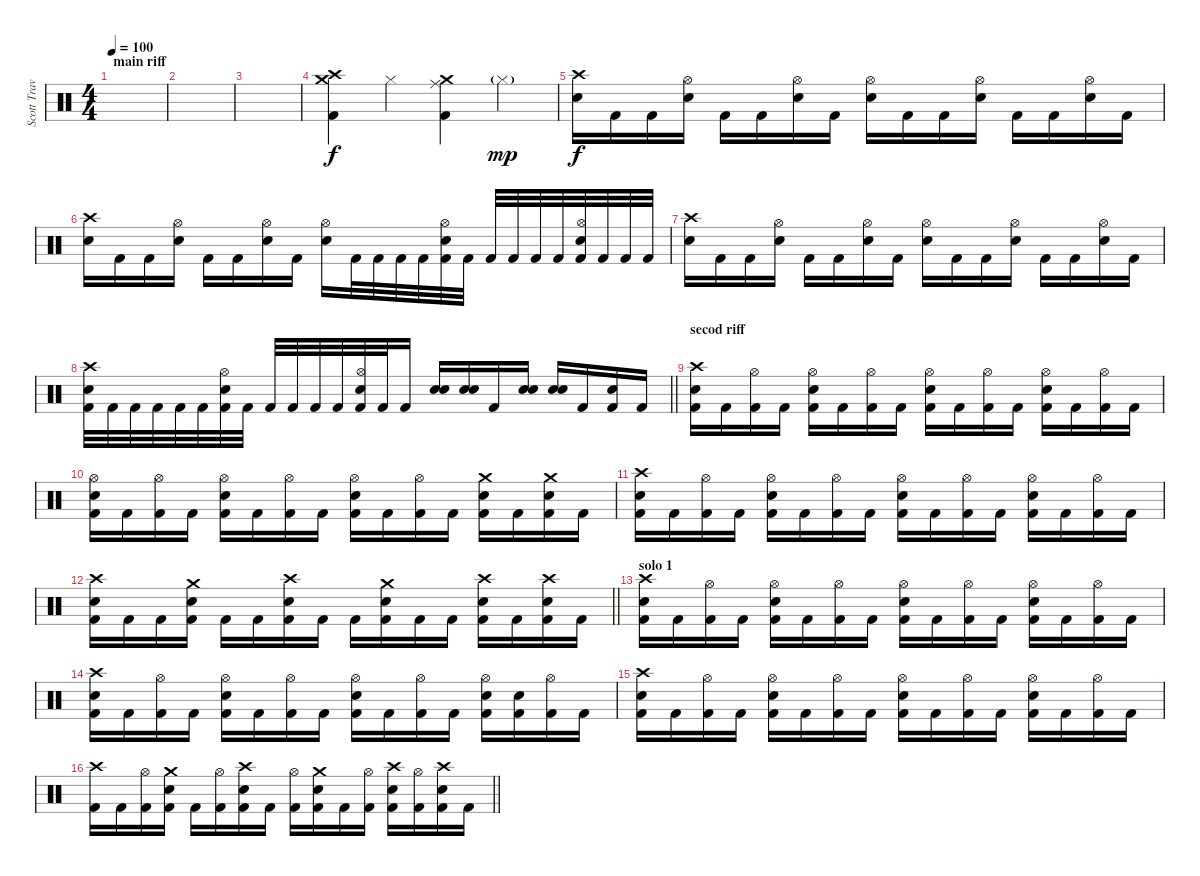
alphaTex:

\track ("Scott Travis" "Scott Trav") {instrument percussion}
\staff {score}
\articulation defaults
\ts (4 4)
\section ("" "main riff")
\tempo 100
\clef neutral
\ks c
|
|
|
("Crash high (hit)" "Crash medium (hit)" "Kick (hit) 2").4 "Hi-Hat (closed)".4 ("Ride (middle)" "Crash medium (hit)" "Kick (hit) 2").4 "Hi-Hat (closed)"{g}.4{dy mp} |
("Crash high (hit)" "Electric Snare (hit)").16{dy f} "Kick (hit) 2".16 "Kick (hit) 2".16 ("Hi-Hat (open)" "Snare (hit) 2").16 "Kick (hit) 2".16 "Kick (hit) 2".16 ("Hi-Hat (open)" "Snare (hit) 2").16 "Kick (hit) 2".16 ("Hi-Hat (open)" "Snare (hit) 2").16 "Kick (hit) 2".16 "Kick (hit) 2".16 ("Hi-Hat (open)" "Snare (hit) 2").16 "Kick (hit) 2".16 "Kick (hit) 2".16 ("Hi-Hat (open)" "Snare (hit) 2").16 "Kick (hit) 2".16 |
("Crash high (hit)" "Electric Snare (hit)").16 "Kick (hit) 2".16 "Kick (hit) 2".16 ("Hi-Hat (open)" "Snare (hit) 2").16 "Kick (hit) 2".16 "Kick (hit) 2".16 ("Hi-Hat (open)" "Snare (hit) 2").16 "Kick (hit) 2".16 ("Hi-Hat (open)" "Snare (hit) 2").16 "Kick (hit) 2".32 "Kick (hit) 2".32 "Kick (hit) 2".32 "Kick (hit) 2".32 ("Hi-Hat (open)" "Snare (hit) 2" "Kick (hit) 2").32 "Kick (hit) 2".32 "Kick (hit) 2".32 "Kick (hit) 2".32 "Kick (hit) 2".32 "Kick (hit) 2".32 ("Hi-Hat (open)" "Snare (hit) 2" "Kick (hit) 2").32 "Kick (hit) 2".32 "Kick (hit) 2".32 "Kick (hit) 2".32 |
("Crash high (hit)" "Electric Snare (hit)").16 "Kick (hit) 2".16 "Kick (hit) 2".16 ("Hi-Hat (open)" "Snare (hit) 2").16 "Kick (hit) 2".16 "Kick (hit) 2".16 ("Hi-Hat (open)" "Snare (hit) 2").16 "Kick (hit) 2".16 ("Hi-Hat (open)" "Snare (hit) 2").16 "Kick (hit) 2".16 "Kick (hit) 2".16 ("Hi-Hat (open)" "Snare (hit) 2").16 "Kick (hit) 2".16 "Kick (hit) 2".16 ("Hi-Hat (open)" "Snare (hit) 2").16 "Kick (hit) 2".16 |
\barLineRight lightlight
("Crash high (hit)" "Snare (hit) 2" "Kick (hit) 2").32 "Kick (hit) 2".32 "Kick (hit) 2".32 "Kick (hit) 2".32 "Kick (hit) 2".32 "Kick (hit) 2".32 ("Hi-Hat (open)" "Snare (hit) 2" "Kick (hit) 2").32 "Kick (hit) 2".32 "Kick (hit) 2".32 "Kick (hit) 2".32 "Kick (hit) 2".32 "Kick (hit) 2".32 ("Hi-Hat (open)" "Snare (hit) 2" "Kick (hit) 2").32 "Kick (hit) 2".32 "Kick (hit) 2".16 ("Electric Snare (hit)" "Snare (hit) 2").16 ("Electric Snare (hit)" "Snare (hit) 2").16 "Kick (hit) 2".16 ("Electric Snare (hit)" "Snare (hit) 2").16 ("Electric Snare (hit)" "Snare (hit) 2").16 "Kick (hit) 2".16 ("Snare (hit) 2" "Kick (hit) 2").16 "Kick (hit) 2".16 |
\section ("" "secod riff")
("Crash high (hit)" "Snare (hit) 2" "Kick (hit) 2").16 "Kick (hit) 2".16 ("Hi-Hat (open)" "Kick (hit) 2").16 "Kick (hit) 2".16 ("Hi-Hat (open)" "Snare (hit) 2" "Kick (hit) 2").16 "Kick (hit) 2".16 ("Hi-Hat (open)" "Kick (hit) 2").16 "Kick (hit) 2".16 ("Hi-Hat (open)" "Snare (hit) 2" "Kick (hit) 2").16 "Kick (hit) 2".16 ("Hi-Hat (open)" "Kick (hit) 2").16 "Kick (hit) 2".16 ("Hi-Hat (open)" "Snare (hit) 2" "Kick (hit) 2").16 "Kick (hit) 2".16 ("Hi-Hat (open)" "Kick (hit) 2").16 "Kick (hit) 2".16 |
("Hi-Hat (open)" "Snare (hit) 2" "Kick (hit) 2").16 "Kick (hit) 2".16 ("Hi-Hat (open)" "Kick (hit) 2").16 "Kick (hit) 2".16 ("Hi-Hat (open)" "Snare (hit) 2" "Kick (hit) 2").16 "Kick (hit) 2".16 ("Hi-Hat (open)" "Kick (hit) 2").16 "Kick (hit) 2".16 ("Hi-Hat (open)" "Snare (hit) 2" "Kick (hit) 2").16 "Kick (hit) 2".16 ("Hi-Hat (open)" "Kick (hit) 2").16 "Kick (hit) 2".16 ("Crash medium (hit)" "Snare (hit) 2" "Kick (hit) 2").16 "Kick (hit) 2".16 ("Crash medium (hit)" "Snare (hit) 2" "Kick (hit) 2").16 "Kick (hit) 2".16 |
("Crash high (hit)" "Snare (hit) 2" "Kick (hit) 2").16 "Kick (hit) 2".16 ("Hi-Hat (open)" "Kick (hit) 2").16 "Kick (hit) 2".16 ("Hi-Hat (open)" "Snare (hit) 2" "Kick (hit) 2").16 "Kick (hit) 2".16 ("Hi-Hat (open)" "Kick (hit) 2").16 "Kick (hit) 2".16 ("Hi-Hat (open)" "Snare (hit) 2" "Kick (hit) 2").16 "Kick (hit) 2".16 ("Hi-Hat (open)" "Kick (hit) 2").16 "Kick (hit) 2".16 ("Hi-Hat (open)" "Snare (hit) 2" "Kick (hit) 2").16 "Kick (hit) 2".16 ("Hi-Hat (open)" "Kick (hit) 2").16 "Kick (hit) 2".16 |
\barLineRight lightlight
("Crash high (hit)" "Snare (hit) 2" "Kick (hit) 2").16 "Kick (hit) 2".16 "Kick (hit) 2".16 ("Crash medium (hit)" "Snare (hit) 2" "Kick (hit) 2").16 "Kick (hit) 2".16 "Kick (hit) 2".16 ("Crash high (hit)" "Snare (hit) 2" "Kick (hit) 2").16 "Kick (hit) 2".16 "Kick (hit) 2".16 ("Crash medium (hit)" "Snare (hit) 2" "Kick (hit) 2").16 "Kick (hit) 2".16 "Kick (hit) 2".16 ("Crash high (hit)" "Snare (hit) 2" "Kick (hit) 2").16 "Kick (hit) 2".16 ("Crash high (hit)" "Snare (hit) 2" "Kick (hit) 2").16 "Kick (hit) 2".16 |
\section ("" "solo 1")
("Crash high (hit)" "Snare (hit) 2" "Kick (hit) 2").16 "Kick (hit) 2".16 ("Hi-Hat (open)" "Kick (hit) 2").16 "Kick (hit) 2".16 ("Hi-Hat (open)" "Snare (hit) 2" "Kick (hit) 2").16 "Kick (hit) 2".16 ("Hi-Hat (open)" "Kick (hit) 2").16 "Kick (hit) 2".16 ("Hi-Hat (open)" "Snare (hit) 2" "Kick (hit) 2").16 "Kick (hit) 2".16 ("Hi-Hat (open)" "Kick (hit) 2").16 "Kick (hit) 2".16 ("Hi-Hat (open)" "Snare (hit) 2" "Kick (hit) 2").16 "Kick (hit) 2".16 ("Hi-Hat (open)" "Kick (hit) 2").16 "Kick (hit) 2".16 |
("Crash high (hit)" "Snare (hit) 2" "Kick (hit) 2").16 "Kick (hit) 2".16 ("Hi-Hat (open)" "Kick (hit) 2").16 "Kick (hit) 2".16 ("Hi-Hat (open)" "Snare (hit) 2" "Kick (hit) 2").16 "Kick (hit) 2".16 ("Hi-Hat (open)" "Kick (hit) 2").16 "Kick (hit) 2".16 ("Hi-Hat (open)" "Snare (hit) 2" "Kick (hit) 2").16 "Kick (hit) 2".16 ("Hi-Hat (open)" "Kick (hit) 2").16 "Kick (hit) 2".16 ("Hi-Hat (open)" "Snare (hit) 2" "Kick (hit) 2").16 ("Snare (hit) 2" "Kick (hit) 2").16 ("Hi-Hat (open)" "Kick (hit) 2").16 "Kick (hit) 2".16 |
("Crash high (hit)" "Snare (hit) 2" "Kick (hit) 2").16 "Kick (hit) 2".16 ("Hi-Hat (open)" "Kick (hit) 2").16 "Kick (hit) 2".16 ("Hi-Hat (open)" "Snare (hit) 2" "Kick (hit) 2").16 "Kick (hit) 2".16 ("Hi-Hat (open)" "Kick (hit) 2").16 "Kick (hit) 2".16 ("Hi-Hat (open)" "Snare (hit) 2" "Kick (hit) 2").16 "Kick (hit) 2".16 ("Hi-Hat (open)" "Kick (hit) 2").16 "Kick (hit) 2".16 ("Hi-Hat (open)" "Snare (hit) 2" "Kick (hit) 2").16 "Kick (hit) 2".16 ("Hi-Hat (open)" "Kick (hit) 2").16 "Kick (hit) 2".16 |
\barLineRight lightlight
("Crash high (hit)" "Kick (hit) 2").16 "Kick (hit) 2".16 ("Hi-Hat (open)" "Kick (hit) 2").16 ("Crash medium (hit)" "Snare (hit) 2" "Kick (hit) 2").16 "Kick (hit) 2".16 ("Hi-Hat (open)" "Kick (hit) 2").16 ("Crash high (hit)" "Snare (hit) 2" "Kick (hit) 2").16 "Kick (hit) 2".16 ("Hi-Hat (open)" "Kick (hit) 2").16 ("Crash medium (hit)" "Snare (hit) 2" "Kick (hit) 2").16 "Kick (hit) 2".16 ("Hi-Hat (open)" "Kick (hit) 2").16 ("Crash high (hit)" "Snare (hit) 2" "Kick (hit) 2").16 ("Hi-Hat (open)" "Kick (hit) 2").16 ("Crash high (hit)" "Snare (hit) 2" "Kick (hit) 2").16 "Kick (hit) 2".16
